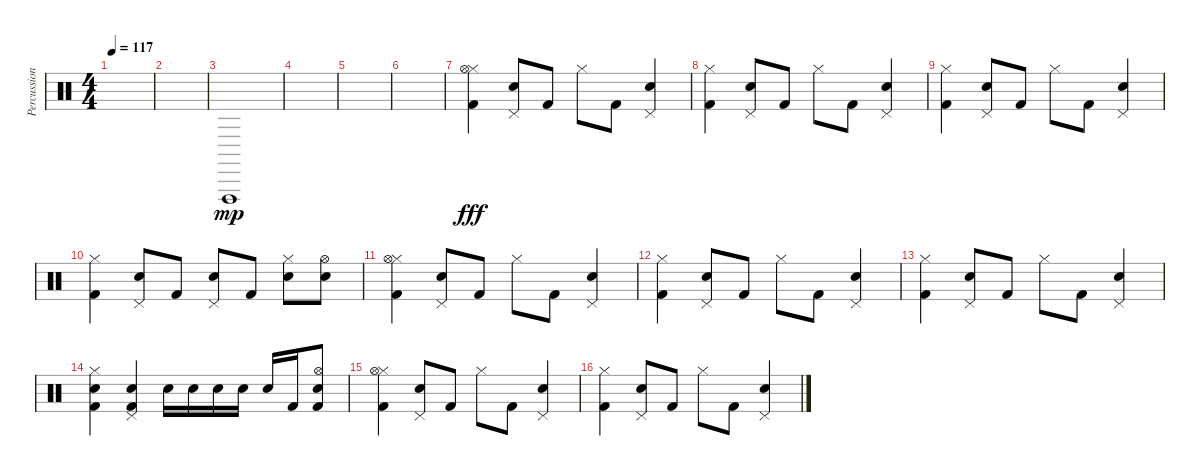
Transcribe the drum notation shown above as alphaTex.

\track ("Percussion" "Percussion") {instrument percussion}
\staff {score}
\articulation defaults
\ts (4 4)
\tempo 117
\clef neutral
\ks c
|
|
"Vibraslap (hit)".1{dy mp} |
|
|
|
("Hi-Hat (closed)" "Kick (hit) 2" "Hi-Hat (open)").4{dy fff} ("Pedal Hi-Hat (hit)" "Electric Snare (hit)").8 "Kick (hit) 2".8 "Hi-Hat (closed)".8 "Kick (hit) 2".8 ("Pedal Hi-Hat (hit)" "Electric Snare (hit)").4 |
("Hi-Hat (closed)" "Kick (hit) 2").4 ("Pedal Hi-Hat (hit)" "Electric Snare (hit)").8 "Kick (hit) 2".8 "Hi-Hat (closed)".8 "Kick (hit) 2".8 ("Pedal Hi-Hat (hit)" "Electric Snare (hit)").4 |
("Hi-Hat (closed)" "Kick (hit) 2").4 ("Pedal Hi-Hat (hit)" "Electric Snare (hit)").8 "Kick (hit) 2".8 "Hi-Hat (closed)".8 "Kick (hit) 2".8 ("Pedal Hi-Hat (hit)" "Electric Snare (hit)").4 |
("Hi-Hat (closed)" "Kick (hit) 2").4 ("Pedal Hi-Hat (hit)" "Electric Snare (hit)").8 "Kick (hit) 2".8 ("Pedal Hi-Hat (hit)" "Electric Snare (hit)").8 "Kick (hit) 2".8 ("Hi-Hat (closed)" "Electric Snare (hit)").8 ("Hi-Hat (open)" "Electric Snare (hit)").8 |
("Hi-Hat (closed)" "Kick (hit) 2" "Hi-Hat (open)").4 ("Pedal Hi-Hat (hit)" "Electric Snare (hit)").8 "Kick (hit) 2".8 "Hi-Hat (closed)".8 "Kick (hit) 2".8 ("Pedal Hi-Hat (hit)" "Electric Snare (hit)").4 |
("Hi-Hat (closed)" "Kick (hit) 2").4 ("Pedal Hi-Hat (hit)" "Electric Snare (hit)").8 "Kick (hit) 2".8 "Hi-Hat (closed)".8 "Kick (hit) 2".8 ("Pedal Hi-Hat (hit)" "Electric Snare (hit)").4 |
("Hi-Hat (closed)" "Kick (hit) 2").4 ("Pedal Hi-Hat (hit)" "Electric Snare (hit)").8 "Kick (hit) 2".8 "Hi-Hat (closed)".8 "Kick (hit) 2".8 ("Pedal Hi-Hat (hit)" "Electric Snare (hit)").4 |
("Hi-Hat (closed)" "Electric Snare (hit)" "Kick (hit) 2").4 ("Pedal Hi-Hat (hit)" "Electric Snare (hit)" "Kick (hit) 2").4 "Electric Snare (hit)".16 "Electric Snare (hit)".16 "Electric Snare (hit)".16 "Electric Snare (hit)".16 "Electric Snare (hit)".16 "Kick (hit) 2".16 ("Hi-Hat (open)" "Electric Snare (hit)" "Kick (hit) 2").8 |
("Hi-Hat (closed)" "Kick (hit) 2" "Hi-Hat (open)").4 ("Pedal Hi-Hat (hit)" "Electric Snare (hit)").8 "Kick (hit) 2".8 "Hi-Hat (closed)".8 "Kick (hit) 2".8 ("Pedal Hi-Hat (hit)" "Electric Snare (hit)").4 |
("Hi-Hat (closed)" "Kick (hit) 2").4 ("Pedal Hi-Hat (hit)" "Electric Snare (hit)").8 "Kick (hit) 2".8 "Hi-Hat (closed)".8 "Kick (hit) 2".8 ("Pedal Hi-Hat (hit)" "Electric Snare (hit)").4
